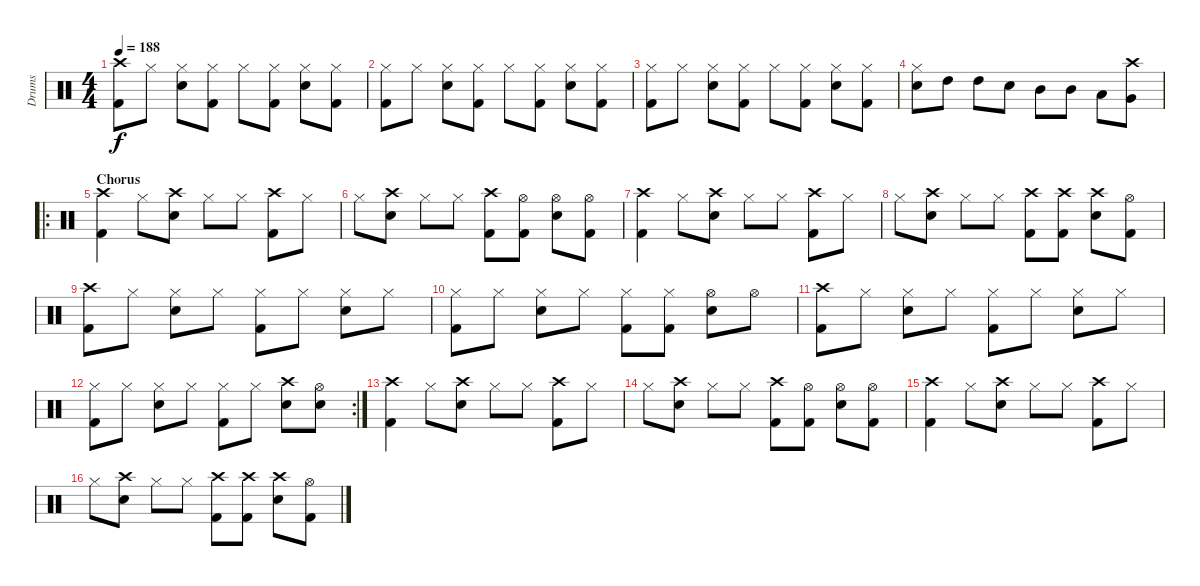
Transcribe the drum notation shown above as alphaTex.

\track ("Drums" "Drums") {instrument percussion}
\staff {score}
\articulation defaults
\ts (4 4)
\tempo 188
\clef neutral
\ks c
("Crash high (hit)" "Kick (hit) 2").8{dy f} "Hi-Hat (closed)".8 ("Hi-Hat (closed)" "Snare (hit) 2").8 ("Hi-Hat (closed)" "Kick (hit) 2").8 "Hi-Hat (closed)".8 ("Hi-Hat (closed)" "Kick (hit) 2").8 ("Hi-Hat (closed)" "Snare (hit) 2").8 ("Hi-Hat (closed)" "Kick (hit) 2").8 |
("Hi-Hat (closed)" "Kick (hit) 2").8 "Hi-Hat (closed)".8 ("Hi-Hat (closed)" "Snare (hit) 2").8 ("Hi-Hat (closed)" "Kick (hit) 2").8 "Hi-Hat (closed)".8 ("Hi-Hat (closed)" "Kick (hit) 2").8 ("Hi-Hat (closed)" "Snare (hit) 2").8 ("Hi-Hat (closed)" "Kick (hit) 2").8 |
("Hi-Hat (closed)" "Kick (hit) 2").8 "Hi-Hat (closed)".8 ("Hi-Hat (closed)" "Snare (hit) 2").8 ("Hi-Hat (closed)" "Kick (hit) 2").8 "Hi-Hat (closed)".8 ("Hi-Hat (closed)" "Kick (hit) 2").8 ("Hi-Hat (closed)" "Snare (hit) 2").8 ("Hi-Hat (closed)" "Kick (hit) 2").8 |
("Hi-Hat (closed)" "Snare (hit) 2").8 "High Tom (hit)".8 "High Tom (hit)".8 "Snare (hit) 2".8 "Mid Tom (hit)".8 "Mid Tom (hit)".8 "Low Tom (hit)".8 ("Crash high (hit)" "Very Low Tom (hit)").8 |
\ro
\section ("" "Chorus")
("Crash high (hit)" "Kick (hit) 2").4 "Hi-Hat (closed)".8 ("Crash high (hit)" "Snare (hit) 2").8 "Hi-Hat (closed)".8 "Hi-Hat (closed)".8 ("Crash high (hit)" "Kick (hit) 2").8 "Hi-Hat (closed)".8 |
"Hi-Hat (closed)".8 ("Crash high (hit)" "Snare (hit) 2").8 "Hi-Hat (closed)".8 "Hi-Hat (closed)".8 ("Crash high (hit)" "Kick (hit) 2").8 ("Hi-Hat (open)" "Kick (hit) 2").8 ("Hi-Hat (open)" "Snare (hit) 2").8 ("Hi-Hat (open)" "Kick (hit) 2").8 |
("Crash high (hit)" "Kick (hit) 2").4 "Hi-Hat (closed)".8 ("Crash high (hit)" "Snare (hit) 2").8 "Hi-Hat (closed)".8 "Hi-Hat (closed)".8 ("Crash high (hit)" "Kick (hit) 2").8 "Hi-Hat (closed)".8 |
"Hi-Hat (closed)".8 ("Crash high (hit)" "Snare (hit) 2").8 "Hi-Hat (closed)".8 "Hi-Hat (closed)".8 ("Crash high (hit)" "Kick (hit) 2").8 ("Crash high (hit)" "Kick (hit) 2").8 ("Crash high (hit)" "Snare (hit) 2").8 ("Hi-Hat (open)" "Kick (hit) 2").8 |
("Crash high (hit)" "Kick (hit) 2").8 "Hi-Hat (closed)".8 ("Hi-Hat (closed)" "Snare (hit) 2").8 "Hi-Hat (closed)".8 ("Hi-Hat (closed)" "Kick (hit) 2").8 "Hi-Hat (closed)".8 ("Hi-Hat (closed)" "Snare (hit) 2").8 "Hi-Hat (closed)".8 |
("Hi-Hat (closed)" "Kick (hit) 2").8 "Hi-Hat (closed)".8 ("Hi-Hat (closed)" "Snare (hit) 2").8 "Hi-Hat (closed)".8 ("Hi-Hat (closed)" "Kick (hit) 2").8 ("Hi-Hat (closed)" "Kick (hit) 2").8 ("Hi-Hat (open)" "Snare (hit) 2").8 "Hi-Hat (open)".8 |
("Crash high (hit)" "Kick (hit) 2").8 "Hi-Hat (closed)".8 ("Hi-Hat (closed)" "Snare (hit) 2").8 "Hi-Hat (closed)".8 ("Hi-Hat (closed)" "Kick (hit) 2").8 "Hi-Hat (closed)".8 ("Hi-Hat (closed)" "Snare (hit) 2").8 "Hi-Hat (closed)".8 |
\rc 2
("Hi-Hat (closed)" "Kick (hit) 2").8 "Hi-Hat (closed)".8 ("Hi-Hat (closed)" "Snare (hit) 2").8 "Hi-Hat (closed)".8 ("Hi-Hat (closed)" "Kick (hit) 2").8 "Hi-Hat (closed)".8 ("Crash high (hit)" "Snare (hit) 2").8 ("Hi-Hat (open)" "Snare (hit) 2").8 |
("Crash high (hit)" "Kick (hit) 2").4 "Hi-Hat (closed)".8 ("Crash high (hit)" "Snare (hit) 2").8 "Hi-Hat (closed)".8 "Hi-Hat (closed)".8 ("Crash high (hit)" "Kick (hit) 2").8 "Hi-Hat (closed)".8 |
"Hi-Hat (closed)".8 ("Crash high (hit)" "Snare (hit) 2").8 "Hi-Hat (closed)".8 "Hi-Hat (closed)".8 ("Crash high (hit)" "Kick (hit) 2").8 ("Hi-Hat (open)" "Kick (hit) 2").8 ("Hi-Hat (open)" "Snare (hit) 2").8 ("Hi-Hat (open)" "Kick (hit) 2").8 |
("Crash high (hit)" "Kick (hit) 2").4 "Hi-Hat (closed)".8 ("Crash high (hit)" "Snare (hit) 2").8 "Hi-Hat (closed)".8 "Hi-Hat (closed)".8 ("Crash high (hit)" "Kick (hit) 2").8 "Hi-Hat (closed)".8 |
"Hi-Hat (closed)".8 ("Crash high (hit)" "Snare (hit) 2").8 "Hi-Hat (closed)".8 "Hi-Hat (closed)".8 ("Crash high (hit)" "Kick (hit) 2").8 ("Crash high (hit)" "Kick (hit) 2").8 ("Crash high (hit)" "Snare (hit) 2").8 ("Hi-Hat (open)" "Kick (hit) 2").8
